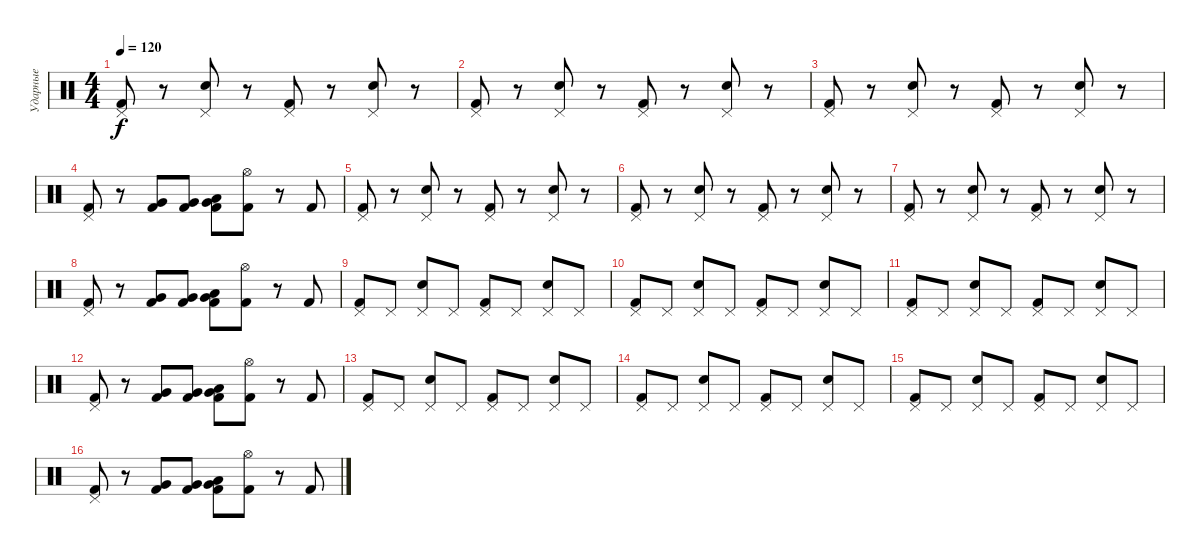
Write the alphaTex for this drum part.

\track ("Ударные" "Ударные") {instrument percussion}
\staff {score}
\articulation defaults
\ts (4 4)
\tempo 120
\clef neutral
\ks c
("Pedal Hi-Hat (hit)" "Kick (hit) 2").8{dy f} r.8 ("Pedal Hi-Hat (hit)" "Snare (hit) 2").8 r.8 ("Pedal Hi-Hat (hit)" "Kick (hit) 2").8 r.8 ("Pedal Hi-Hat (hit)" "Snare (hit) 2").8 r.8 |
("Pedal Hi-Hat (hit)" "Kick (hit) 2").8 r.8 ("Pedal Hi-Hat (hit)" "Snare (hit) 2").8 r.8 ("Pedal Hi-Hat (hit)" "Kick (hit) 2").8 r.8 ("Pedal Hi-Hat (hit)" "Snare (hit) 2").8 r.8 |
("Pedal Hi-Hat (hit)" "Kick (hit) 2").8 r.8 ("Pedal Hi-Hat (hit)" "Snare (hit) 2").8 r.8 ("Pedal Hi-Hat (hit)" "Kick (hit) 2").8 r.8 ("Pedal Hi-Hat (hit)" "Snare (hit) 2").8 r.8 |
("Pedal Hi-Hat (hit)" "Kick (hit) 2").8 r.8 ("Very Low Tom (hit)" "Kick (hit) 2").8 ("Very Low Tom (hit)" "Kick (hit) 2").8 ("Very Low Tom (hit)" "Low Tom (hit)" "Kick (hit) 2").8 ("Hi-Hat (open)" "Kick (hit) 2").8 r.8 "Kick (hit) 2".8 |
("Pedal Hi-Hat (hit)" "Kick (hit) 2").8 r.8 ("Pedal Hi-Hat (hit)" "Snare (hit) 2").8 r.8 ("Pedal Hi-Hat (hit)" "Kick (hit) 2").8 r.8 ("Pedal Hi-Hat (hit)" "Snare (hit) 2").8 r.8 |
("Pedal Hi-Hat (hit)" "Kick (hit) 2").8 r.8 ("Pedal Hi-Hat (hit)" "Snare (hit) 2").8 r.8 ("Pedal Hi-Hat (hit)" "Kick (hit) 2").8 r.8 ("Pedal Hi-Hat (hit)" "Snare (hit) 2").8 r.8 |
("Pedal Hi-Hat (hit)" "Kick (hit) 2").8 r.8 ("Pedal Hi-Hat (hit)" "Snare (hit) 2").8 r.8 ("Pedal Hi-Hat (hit)" "Kick (hit) 2").8 r.8 ("Pedal Hi-Hat (hit)" "Snare (hit) 2").8 r.8 |
("Pedal Hi-Hat (hit)" "Kick (hit) 2").8 r.8 ("Very Low Tom (hit)" "Kick (hit) 2").8 ("Very Low Tom (hit)" "Kick (hit) 2").8 ("Very Low Tom (hit)" "Low Tom (hit)" "Kick (hit) 2").8 ("Hi-Hat (open)" "Kick (hit) 2").8 r.8 "Kick (hit) 2".8 |
("Pedal Hi-Hat (hit)" "Kick (hit) 2").8 "Pedal Hi-Hat (hit)".8 ("Pedal Hi-Hat (hit)" "Snare (hit) 2").8 "Pedal Hi-Hat (hit)".8 ("Pedal Hi-Hat (hit)" "Kick (hit) 2").8 "Pedal Hi-Hat (hit)".8 ("Pedal Hi-Hat (hit)" "Snare (hit) 2").8 "Pedal Hi-Hat (hit)".8 |
("Pedal Hi-Hat (hit)" "Kick (hit) 2").8 "Pedal Hi-Hat (hit)".8 ("Pedal Hi-Hat (hit)" "Snare (hit) 2").8 "Pedal Hi-Hat (hit)".8 ("Pedal Hi-Hat (hit)" "Kick (hit) 2").8 "Pedal Hi-Hat (hit)".8 ("Pedal Hi-Hat (hit)" "Snare (hit) 2").8 "Pedal Hi-Hat (hit)".8 |
("Pedal Hi-Hat (hit)" "Kick (hit) 2").8 "Pedal Hi-Hat (hit)".8 ("Pedal Hi-Hat (hit)" "Snare (hit) 2").8 "Pedal Hi-Hat (hit)".8 ("Pedal Hi-Hat (hit)" "Kick (hit) 2").8 "Pedal Hi-Hat (hit)".8 ("Pedal Hi-Hat (hit)" "Snare (hit) 2").8 "Pedal Hi-Hat (hit)".8 |
("Pedal Hi-Hat (hit)" "Kick (hit) 2").8 r.8 ("Very Low Tom (hit)" "Kick (hit) 2").8 ("Very Low Tom (hit)" "Kick (hit) 2").8 ("Very Low Tom (hit)" "Low Tom (hit)" "Kick (hit) 2").8 ("Hi-Hat (open)" "Kick (hit) 2").8 r.8 "Kick (hit) 2".8 |
("Pedal Hi-Hat (hit)" "Kick (hit) 2").8 "Pedal Hi-Hat (hit)".8 ("Pedal Hi-Hat (hit)" "Snare (hit) 2").8 "Pedal Hi-Hat (hit)".8 ("Pedal Hi-Hat (hit)" "Kick (hit) 2").8 "Pedal Hi-Hat (hit)".8 ("Pedal Hi-Hat (hit)" "Snare (hit) 2").8 "Pedal Hi-Hat (hit)".8 |
("Pedal Hi-Hat (hit)" "Kick (hit) 2").8 "Pedal Hi-Hat (hit)".8 ("Pedal Hi-Hat (hit)" "Snare (hit) 2").8 "Pedal Hi-Hat (hit)".8 ("Pedal Hi-Hat (hit)" "Kick (hit) 2").8 "Pedal Hi-Hat (hit)".8 ("Pedal Hi-Hat (hit)" "Snare (hit) 2").8 "Pedal Hi-Hat (hit)".8 |
("Pedal Hi-Hat (hit)" "Kick (hit) 2").8 "Pedal Hi-Hat (hit)".8 ("Pedal Hi-Hat (hit)" "Snare (hit) 2").8 "Pedal Hi-Hat (hit)".8 ("Pedal Hi-Hat (hit)" "Kick (hit) 2").8 "Pedal Hi-Hat (hit)".8 ("Pedal Hi-Hat (hit)" "Snare (hit) 2").8 "Pedal Hi-Hat (hit)".8 |
("Pedal Hi-Hat (hit)" "Kick (hit) 2").8 r.8 ("Very Low Tom (hit)" "Kick (hit) 2").8 ("Very Low Tom (hit)" "Kick (hit) 2").8 ("Very Low Tom (hit)" "Low Tom (hit)" "Kick (hit) 2").8 ("Hi-Hat (open)" "Kick (hit) 2").8 r.8 "Kick (hit) 2".8
